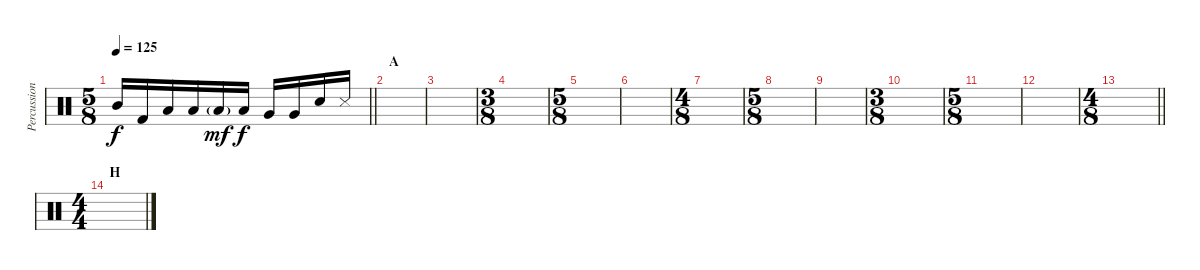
\track ("Percussion" "Percussion") {instrument percussion}
\staff {score}
\articulation defaults
\ts (5 8)
\tempo 125
\clef neutral
\barLineRight lightlight
\ks c "Mid Tom (hit)".16{dy f} "Kick (hit) 2".16 "Low Tom (hit)".16 "Low Tom (hit)".16 "Low Tom (hit)"{g}.16{dy mf} "Low Tom (hit)".16{dy f} "Very Low Tom (hit)".16 "Very Low Tom (hit)".16 "Snare (hit) 2".16 "Metronome (hit)".16
|
\section ("" "A")
|
|
\ts (3 8)
|
\ts (5 8)
|
|
\ts (4 8)
|
\ts (5 8)
|
|
\ts (3 8)
|
\ts (5 8)
|
|
\ts (4 8)
\barLineRight lightlight
|
\ts (4 4)
\section ("" "H")
